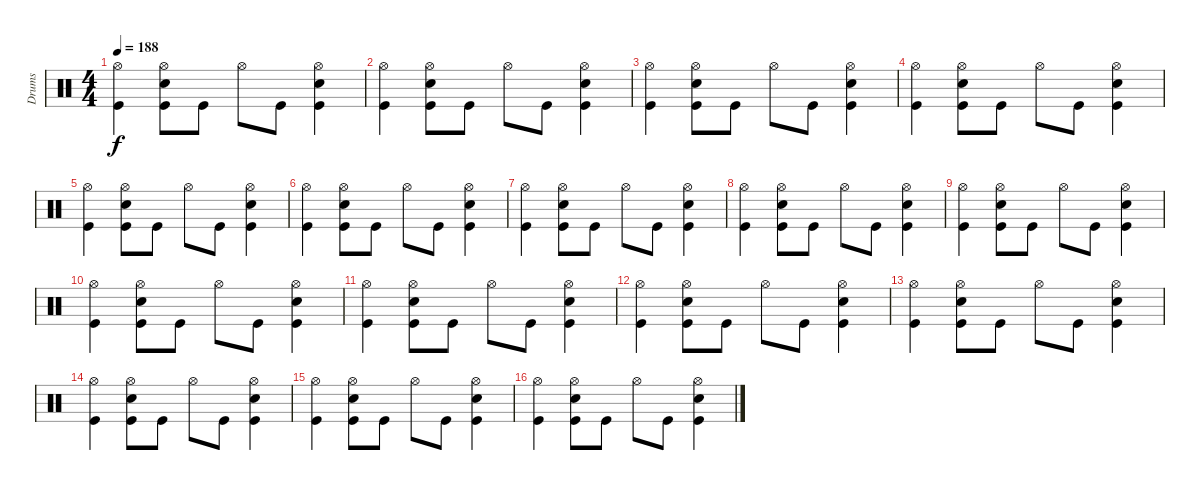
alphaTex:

\track ("Drums" "Drums") {instrument percussion}
\staff {score}
\articulation defaults
\ts (4 4)
\tempo 188
\clef neutral
\ks c
("Hi-Hat (open)" "Kick (hit)").4{dy f} ("Hi-Hat (open)" "Snare (hit) 2" "Kick (hit)").8 "Kick (hit)".8 "Hi-Hat (open)".8 "Kick (hit)".8 ("Hi-Hat (open)" "Electric Snare (hit)" "Kick (hit)").4 |
("Hi-Hat (open)" "Kick (hit)").4 ("Hi-Hat (open)" "Snare (hit) 2" "Kick (hit)").8 "Kick (hit)".8 "Hi-Hat (open)".8 "Kick (hit)".8 ("Hi-Hat (open)" "Electric Snare (hit)" "Kick (hit)").4 |
("Hi-Hat (open)" "Kick (hit)").4 ("Hi-Hat (open)" "Snare (hit) 2" "Kick (hit)").8 "Kick (hit)".8 "Hi-Hat (open)".8 "Kick (hit)".8 ("Hi-Hat (open)" "Electric Snare (hit)" "Kick (hit)").4 |
("Hi-Hat (open)" "Kick (hit)").4 ("Hi-Hat (open)" "Snare (hit) 2" "Kick (hit)").8 "Kick (hit)".8 "Hi-Hat (open)".8 "Kick (hit)".8 ("Hi-Hat (open)" "Electric Snare (hit)" "Kick (hit)").4 |
("Hi-Hat (open)" "Kick (hit)").4 ("Hi-Hat (open)" "Snare (hit) 2" "Kick (hit)").8 "Kick (hit)".8 "Hi-Hat (open)".8 "Kick (hit)".8 ("Hi-Hat (open)" "Electric Snare (hit)" "Kick (hit)").4 |
("Hi-Hat (open)" "Kick (hit)").4 ("Hi-Hat (open)" "Snare (hit) 2" "Kick (hit)").8 "Kick (hit)".8 "Hi-Hat (open)".8 "Kick (hit)".8 ("Hi-Hat (open)" "Electric Snare (hit)" "Kick (hit)").4 |
("Hi-Hat (open)" "Kick (hit)").4 ("Hi-Hat (open)" "Snare (hit) 2" "Kick (hit)").8 "Kick (hit)".8 "Hi-Hat (open)".8 "Kick (hit)".8 ("Hi-Hat (open)" "Electric Snare (hit)" "Kick (hit)").4 |
("Hi-Hat (open)" "Kick (hit)").4 ("Hi-Hat (open)" "Snare (hit) 2" "Kick (hit)").8 "Kick (hit)".8 "Hi-Hat (open)".8 "Kick (hit)".8 ("Hi-Hat (open)" "Electric Snare (hit)" "Kick (hit)").4 |
("Hi-Hat (open)" "Kick (hit)").4 ("Hi-Hat (open)" "Snare (hit) 2" "Kick (hit)").8 "Kick (hit)".8 "Hi-Hat (open)".8 "Kick (hit)".8 ("Hi-Hat (open)" "Electric Snare (hit)" "Kick (hit)").4 |
("Hi-Hat (open)" "Kick (hit)").4 ("Hi-Hat (open)" "Snare (hit) 2" "Kick (hit)").8 "Kick (hit)".8 "Hi-Hat (open)".8 "Kick (hit)".8 ("Hi-Hat (open)" "Electric Snare (hit)" "Kick (hit)").4 |
("Hi-Hat (open)" "Kick (hit)").4 ("Hi-Hat (open)" "Snare (hit) 2" "Kick (hit)").8 "Kick (hit)".8 "Hi-Hat (open)".8 "Kick (hit)".8 ("Hi-Hat (open)" "Electric Snare (hit)" "Kick (hit)").4 |
("Hi-Hat (open)" "Kick (hit)").4 ("Hi-Hat (open)" "Snare (hit) 2" "Kick (hit)").8 "Kick (hit)".8 "Hi-Hat (open)".8 "Kick (hit)".8 ("Hi-Hat (open)" "Electric Snare (hit)" "Kick (hit)").4 |
("Hi-Hat (open)" "Kick (hit)").4 ("Hi-Hat (open)" "Snare (hit) 2" "Kick (hit)").8 "Kick (hit)".8 "Hi-Hat (open)".8 "Kick (hit)".8 ("Hi-Hat (open)" "Electric Snare (hit)" "Kick (hit)").4 |
("Hi-Hat (open)" "Kick (hit)").4 ("Hi-Hat (open)" "Snare (hit) 2" "Kick (hit)").8 "Kick (hit)".8 "Hi-Hat (open)".8 "Kick (hit)".8 ("Hi-Hat (open)" "Electric Snare (hit)" "Kick (hit)").4 |
("Hi-Hat (open)" "Kick (hit)").4 ("Hi-Hat (open)" "Snare (hit) 2" "Kick (hit)").8 "Kick (hit)".8 "Hi-Hat (open)".8 "Kick (hit)".8 ("Hi-Hat (open)" "Electric Snare (hit)" "Kick (hit)").4 |
("Hi-Hat (open)" "Kick (hit)").4 ("Hi-Hat (open)" "Snare (hit) 2" "Kick (hit)").8 "Kick (hit)".8 "Hi-Hat (open)".8 "Kick (hit)".8 ("Hi-Hat (open)" "Electric Snare (hit)" "Kick (hit)").4
